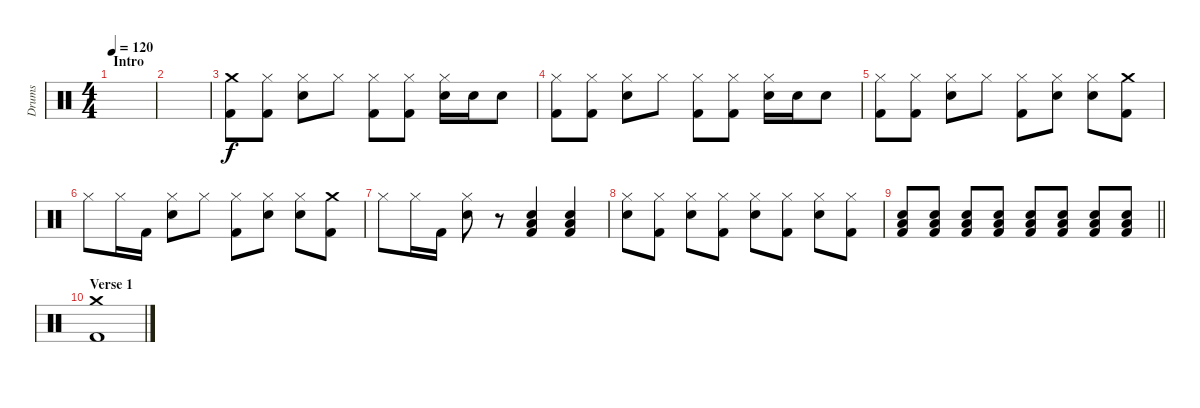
\track ("Drums" "Drums") {instrument percussion}
\staff {score}
\articulation defaults
\ts (4 4)
\section ("" "Intro")
\tempo 120
\clef neutral
\ks c
|
|
("Crash medium (hit)" "Kick (hit) 2").8 ("Hi-Hat (closed)" "Kick (hit) 2").8 ("Hi-Hat (closed)" "Electric Snare (hit)").8 "Hi-Hat (closed)".8 ("Hi-Hat (closed)" "Kick (hit) 2").8 ("Hi-Hat (closed)" "Kick (hit) 2").8 ("Hi-Hat (closed)" "Electric Snare (hit)").16 "Electric Snare (hit)".16 "Electric Snare (hit)".8 |
("Hi-Hat (closed)" "Kick (hit) 2").8 ("Hi-Hat (closed)" "Kick (hit) 2").8 ("Hi-Hat (closed)" "Electric Snare (hit)").8 "Hi-Hat (closed)".8 ("Hi-Hat (closed)" "Kick (hit) 2").8 ("Hi-Hat (closed)" "Kick (hit) 2").8 ("Hi-Hat (closed)" "Electric Snare (hit)").16 "Electric Snare (hit)".16 "Electric Snare (hit)".8 |
("Hi-Hat (closed)" "Kick (hit) 2").8 ("Hi-Hat (closed)" "Kick (hit) 2").8 ("Hi-Hat (closed)" "Electric Snare (hit)").8 "Hi-Hat (closed)".8 ("Hi-Hat (closed)" "Kick (hit) 2").8 ("Hi-Hat (closed)" "Electric Snare (hit)").8 ("Hi-Hat (closed)" "Electric Snare (hit)").8 ("Crash medium (hit)" "Kick (hit) 2").8 |
"Hi-Hat (closed)".8 "Hi-Hat (closed)".16 "Kick (hit) 2".16 ("Hi-Hat (closed)" "Electric Snare (hit)").8 "Hi-Hat (closed)".8 ("Hi-Hat (closed)" "Kick (hit) 2").8 ("Hi-Hat (closed)" "Electric Snare (hit)").8 ("Hi-Hat (closed)" "Electric Snare (hit)").8 ("Crash medium (hit)" "Kick (hit) 2").8 |
"Hi-Hat (closed)".8 "Hi-Hat (closed)".16 "Kick (hit) 2".16 ("Hi-Hat (closed)" "Electric Snare (hit)").8 r.8 ("Electric Snare (hit)" "Low Tom (hit)" "Kick (hit) 2").4 ("Electric Snare (hit)" "Low Tom (hit)" "Kick (hit) 2").4 |
("Hi-Hat (closed)" "Electric Snare (hit)").8 ("Hi-Hat (closed)" "Kick (hit) 2").8 ("Hi-Hat (closed)" "Electric Snare (hit)").8 ("Hi-Hat (closed)" "Kick (hit) 2").8 ("Hi-Hat (closed)" "Electric Snare (hit)").8 ("Hi-Hat (closed)" "Kick (hit) 2").8 ("Hi-Hat (closed)" "Electric Snare (hit)").8 ("Hi-Hat (closed)" "Kick (hit) 2").8 |
\barLineRight lightlight
("Electric Snare (hit)" "Low Tom (hit)" "Kick (hit) 2").8 ("Electric Snare (hit)" "Low Tom (hit)" "Kick (hit) 2").8 ("Electric Snare (hit)" "Low Tom (hit)" "Kick (hit) 2").8 ("Electric Snare (hit)" "Low Tom (hit)" "Kick (hit) 2").8 ("Electric Snare (hit)" "Low Tom (hit)" "Kick (hit) 2").8 ("Electric Snare (hit)" "Low Tom (hit)" "Kick (hit) 2").8 ("Electric Snare (hit)" "Low Tom (hit)" "Kick (hit) 2").8 ("Electric Snare (hit)" "Low Tom (hit)" "Kick (hit) 2").8 |
\section ("" "Verse 1")
("Crash medium (hit)" "Kick (hit) 2").1
